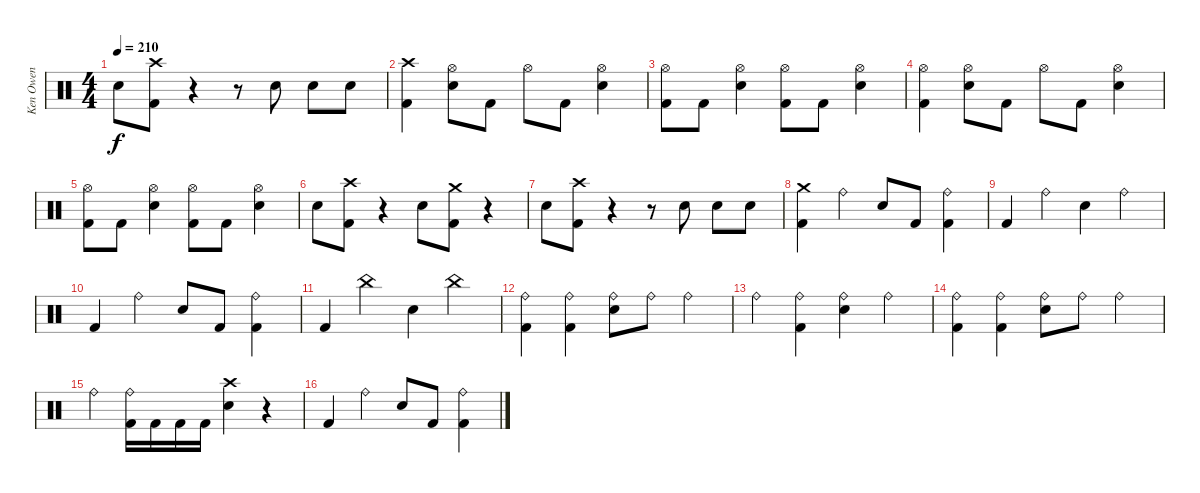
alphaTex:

\track ("Ken Owen" "Ken Owen") {instrument percussion}
\staff {score}
\articulation defaults
\ts (4 4)
\tempo 210
\clef neutral
\ks c "Snare (hit) 2".8{dy f}
("Crash high (hit)" "Kick (hit) 2").8 r.4 r.8 "Snare (hit) 2".8 "Snare (hit) 2".8 "Snare (hit) 2".8 |
("Crash high (hit)" "Kick (hit) 2").4 ("Hi-Hat (open)" "Snare (hit) 2").8 "Kick (hit) 2".8 "Hi-Hat (open)".8 "Kick (hit) 2".8 ("Hi-Hat (open)" "Snare (hit) 2").4 |
("Hi-Hat (open)" "Kick (hit) 2").8 "Kick (hit) 2".8 ("Hi-Hat (open)" "Snare (hit) 2").4 ("Hi-Hat (open)" "Kick (hit) 2").8 "Kick (hit) 2".8 ("Hi-Hat (open)" "Snare (hit) 2").4 |
("Hi-Hat (open)" "Kick (hit) 2").4 ("Hi-Hat (open)" "Snare (hit) 2").8 "Kick (hit) 2".8 "Hi-Hat (open)".8 "Kick (hit) 2".8 ("Hi-Hat (open)" "Snare (hit) 2").4 |
("Hi-Hat (open)" "Kick (hit) 2").8 "Kick (hit) 2".8 ("Hi-Hat (open)" "Snare (hit) 2").4 ("Hi-Hat (open)" "Kick (hit) 2").8 "Kick (hit) 2".8 ("Hi-Hat (open)" "Snare (hit) 2").4 |
"Snare (hit) 2".8 ("Crash high (hit)" "Kick (hit) 2").8 r.4 "Snare (hit) 2".8 ("Crash medium (hit)" "Kick (hit) 2").8 r.4 |
"Snare (hit) 2".8 ("Crash high (hit)" "Kick (hit) 2").8 r.4 r.8 "Snare (hit) 2".8 "Snare (hit) 2".8 "Snare (hit) 2".8 |
("Crash medium (hit)" "Kick (hit) 2").4 "Ride (bell)".4 "Snare (hit) 2".8 "Kick (hit) 2".8 ("Ride (bell)" "Kick (hit) 2").4 |
"Kick (hit) 2".4 "Ride (bell)".4 "Snare (hit) 2".4 "Ride (bell)".4 |
"Kick (hit) 2".4 "Ride (bell)".4 "Snare (hit) 2".8 "Kick (hit) 2".8 ("Ride (bell)" "Kick (hit) 2").4 |
"Kick (hit) 2".4 "China (hit)".4 "Snare (hit) 2".4 "China (hit)".4 |
("Ride (bell)" "Kick (hit) 2").4 ("Ride (bell)" "Kick (hit) 2").4 ("Ride (bell)" "Snare (hit) 2").8 "Ride (bell)".8 "Ride (bell)".4 |
"Ride (bell)".4 ("Ride (bell)" "Kick (hit) 2").4 ("Ride (bell)" "Snare (hit) 2").4 "Ride (bell)".4 |
("Ride (bell)" "Kick (hit) 2").4 ("Ride (bell)" "Kick (hit) 2").4 ("Ride (bell)" "Snare (hit) 2").8 "Ride (bell)".8 "Ride (bell)".4 |
"Ride (bell)".4 ("Ride (bell)" "Kick (hit) 2").16 "Kick (hit) 2".16 "Kick (hit) 2".16 "Kick (hit) 2".16 ("Crash high (hit)" "Snare (hit) 2").4 r.4 |
"Kick (hit) 2".4 "Ride (bell)".4 "Snare (hit) 2".8 "Kick (hit) 2".8 ("Ride (bell)" "Kick (hit) 2").4
